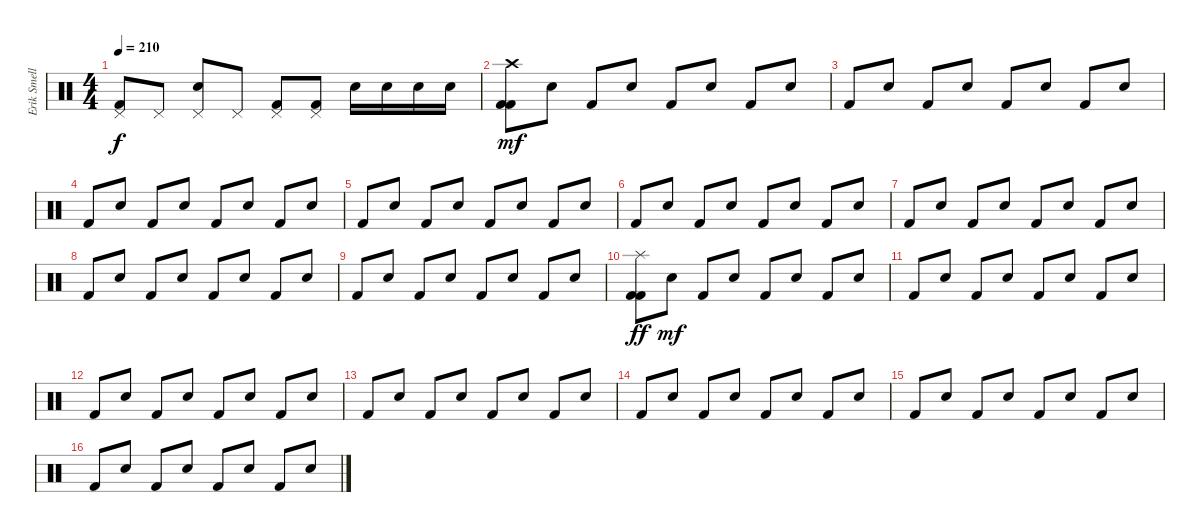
\track ("Erik Smelly" "Erik Smell") {instrument percussion}
\staff {score}
\articulation defaults
\ts (4 4)
\tempo 210
\clef neutral
\ks c
("Pedal Hi-Hat (hit)" "Kick (hit) 2").8{dy f} "Pedal Hi-Hat (hit)".8 ("Electric Snare (hit)" "Pedal Hi-Hat (hit)").8 "Pedal Hi-Hat (hit)".8 ("Pedal Hi-Hat (hit)" "Kick (hit) 2").8 ("Kick (hit) 2" "Pedal Hi-Hat (hit)").8 "Electric Snare (hit)".16 "Electric Snare (hit)".16 "Electric Snare (hit)".16 "Electric Snare (hit)".16 |
("Kick (hit) 2" "Crash high (hit)" "Kick (hit) 2").8{dy mf} "Electric Snare (hit)".8 "Kick (hit) 2".8 "Electric Snare (hit)".8 "Kick (hit) 2".8 "Electric Snare (hit)".8 "Kick (hit) 2".8 "Electric Snare (hit)".8 |
"Kick (hit) 2".8 "Electric Snare (hit)".8 "Kick (hit) 2".8 "Electric Snare (hit)".8 "Kick (hit) 2".8 "Electric Snare (hit)".8 "Kick (hit) 2".8 "Electric Snare (hit)".8 |
"Kick (hit) 2".8 "Electric Snare (hit)".8 "Kick (hit) 2".8 "Electric Snare (hit)".8 "Kick (hit) 2".8 "Electric Snare (hit)".8 "Kick (hit) 2".8 "Electric Snare (hit)".8 |
"Kick (hit) 2".8 "Electric Snare (hit)".8 "Kick (hit) 2".8 "Electric Snare (hit)".8 "Kick (hit) 2".8 "Electric Snare (hit)".8 "Kick (hit) 2".8 "Electric Snare (hit)".8 |
"Kick (hit) 2".8 "Electric Snare (hit)".8 "Kick (hit) 2".8 "Electric Snare (hit)".8 "Kick (hit) 2".8 "Electric Snare (hit)".8 "Kick (hit) 2".8 "Electric Snare (hit)".8 |
"Kick (hit) 2".8 "Electric Snare (hit)".8 "Kick (hit) 2".8 "Electric Snare (hit)".8 "Kick (hit) 2".8 "Electric Snare (hit)".8 "Kick (hit) 2".8 "Electric Snare (hit)".8 |
"Kick (hit) 2".8 "Electric Snare (hit)".8 "Kick (hit) 2".8 "Electric Snare (hit)".8 "Kick (hit) 2".8 "Electric Snare (hit)".8 "Kick (hit) 2".8 "Electric Snare (hit)".8 |
"Kick (hit) 2".8 "Electric Snare (hit)".8 "Kick (hit) 2".8 "Electric Snare (hit)".8 "Kick (hit) 2".8 "Electric Snare (hit)".8 "Kick (hit) 2".8 "Electric Snare (hit)".8 |
("Kick (hit) 2" "Kick (hit) 2" "Splash (hit)").8{dy ff} "Electric Snare (hit)".8{dy mf} "Kick (hit) 2".8 "Electric Snare (hit)".8 "Kick (hit) 2".8 "Electric Snare (hit)".8 "Kick (hit) 2".8 "Electric Snare (hit)".8 |
"Kick (hit) 2".8 "Electric Snare (hit)".8 "Kick (hit) 2".8 "Electric Snare (hit)".8 "Kick (hit) 2".8 "Electric Snare (hit)".8 "Kick (hit) 2".8 "Electric Snare (hit)".8 |
"Kick (hit) 2".8 "Electric Snare (hit)".8 "Kick (hit) 2".8 "Electric Snare (hit)".8 "Kick (hit) 2".8 "Electric Snare (hit)".8 "Kick (hit) 2".8 "Electric Snare (hit)".8 |
"Kick (hit) 2".8 "Electric Snare (hit)".8 "Kick (hit) 2".8 "Electric Snare (hit)".8 "Kick (hit) 2".8 "Electric Snare (hit)".8 "Kick (hit) 2".8 "Electric Snare (hit)".8 |
"Kick (hit) 2".8 "Electric Snare (hit)".8 "Kick (hit) 2".8 "Electric Snare (hit)".8 "Kick (hit) 2".8 "Electric Snare (hit)".8 "Kick (hit) 2".8 "Electric Snare (hit)".8 |
"Kick (hit) 2".8 "Electric Snare (hit)".8 "Kick (hit) 2".8 "Electric Snare (hit)".8 "Kick (hit) 2".8 "Electric Snare (hit)".8 "Kick (hit) 2".8 "Electric Snare (hit)".8 |
"Kick (hit) 2".8 "Electric Snare (hit)".8 "Kick (hit) 2".8 "Electric Snare (hit)".8 "Kick (hit) 2".8 "Electric Snare (hit)".8 "Kick (hit) 2".8 "Electric Snare (hit)".8
